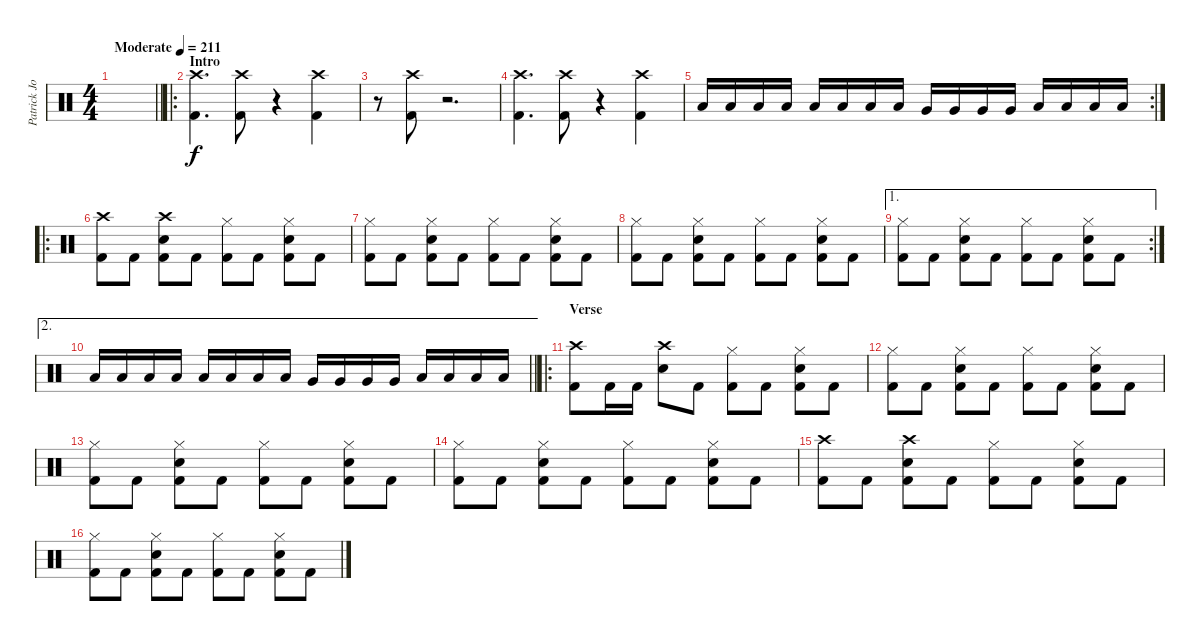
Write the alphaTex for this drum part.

\track ("Patrick Johansson" "Patrick Jo") {instrument percussion}
\staff {score}
\articulation defaults
\ts (4 4)
\tempo (211 "Moderate")
\clef neutral
\barLineRight lightlight
\ks c
|
\ro
\section ("" "Intro")
("Crash high (hit)" "Kick (hit) 2").4{d} ("Crash high (hit)" "Kick (hit) 2").8 r.4 ("Crash high (hit)" "Kick (hit) 2").4 |
r.8 ("Crash high (hit)" "Kick (hit) 2").8 r.2{d} |
("Crash high (hit)" "Kick (hit) 2").4{d} ("Crash high (hit)" "Kick (hit) 2").8 r.4 ("Crash high (hit)" "Kick (hit) 2").4 |
\rc 2 "Low Tom (hit)".16 "Low Tom (hit)".16 "Low Tom (hit)".16 "Low Tom (hit)".16 "Low Tom (hit)".16 "Low Tom (hit)".16 "Low Tom (hit)".16 "Low Tom (hit)".16 "Very Low Tom (hit)".16 "Very Low Tom (hit)".16 "Very Low Tom (hit)".16 "Very Low Tom (hit)".16 "Low Floor Tom (hit)".16 "Low Floor Tom (hit)".16 "Low Floor Tom (hit)".16 "Low Floor Tom (hit)".16
|
\ro
("Crash high (hit)" "Kick (hit) 2").8 "Kick (hit) 2".8 ("Crash high (hit)" "Electric Snare (hit)" "Kick (hit) 2").8 "Kick (hit) 2".8 ("Hi-Hat (closed)" "Kick (hit) 2").8 "Kick (hit) 2".8 ("Electric Snare (hit)" "Hi-Hat (closed)" "Kick (hit) 2").8 "Kick (hit) 2".8 |
("Hi-Hat (closed)" "Kick (hit) 2").8 "Kick (hit) 2".8 ("Electric Snare (hit)" "Hi-Hat (closed)" "Kick (hit) 2").8 "Kick (hit) 2".8 ("Hi-Hat (closed)" "Kick (hit) 2").8 "Kick (hit) 2".8 ("Electric Snare (hit)" "Hi-Hat (closed)" "Kick (hit) 2").8 "Kick (hit) 2".8 |
("Hi-Hat (closed)" "Kick (hit) 2").8 "Kick (hit) 2".8 ("Electric Snare (hit)" "Hi-Hat (closed)" "Kick (hit) 2").8 "Kick (hit) 2".8 ("Hi-Hat (closed)" "Kick (hit) 2").8 "Kick (hit) 2".8 ("Electric Snare (hit)" "Hi-Hat (closed)" "Kick (hit) 2").8 "Kick (hit) 2".8 |
\ae 1
\rc 2
("Hi-Hat (closed)" "Kick (hit) 2").8 "Kick (hit) 2".8 ("Electric Snare (hit)" "Hi-Hat (closed)" "Kick (hit) 2").8 "Kick (hit) 2".8 ("Hi-Hat (closed)" "Kick (hit) 2").8 "Kick (hit) 2".8 ("Electric Snare (hit)" "Hi-Hat (closed)" "Kick (hit) 2").8 "Kick (hit) 2".8 |
\ae 2
\barLineRight lightlight "Low Tom (hit)".16 "Low Tom (hit)".16 "Low Tom (hit)".16 "Low Tom (hit)".16 "Low Tom (hit)".16 "Low Tom (hit)".16 "Low Tom (hit)".16 "Low Tom (hit)".16 "Very Low Tom (hit)".16 "Very Low Tom (hit)".16 "Very Low Tom (hit)".16 "Very Low Tom (hit)".16 "Low Floor Tom (hit)".16 "Low Floor Tom (hit)".16 "Low Floor Tom (hit)".16 "Low Floor Tom (hit)".16
|
\ro
\section ("" "Verse")
("Crash high (hit)" "Kick (hit) 2").8 "Kick (hit) 2".16 "Kick (hit) 2".16 ("Crash high (hit)" "Electric Snare (hit)").8 "Kick (hit) 2".8 ("Hi-Hat (closed)" "Kick (hit) 2").8 "Kick (hit) 2".8 ("Electric Snare (hit)" "Hi-Hat (closed)" "Kick (hit) 2").8 "Kick (hit) 2".8 |
("Hi-Hat (closed)" "Kick (hit) 2").8 "Kick (hit) 2".8 ("Electric Snare (hit)" "Hi-Hat (closed)" "Kick (hit) 2").8 "Kick (hit) 2".8 ("Hi-Hat (closed)" "Kick (hit) 2").8 "Kick (hit) 2".8 ("Electric Snare (hit)" "Hi-Hat (closed)" "Kick (hit) 2").8 "Kick (hit) 2".8 |
("Hi-Hat (closed)" "Kick (hit) 2").8 "Kick (hit) 2".8 ("Electric Snare (hit)" "Hi-Hat (closed)" "Kick (hit) 2").8 "Kick (hit) 2".8 ("Hi-Hat (closed)" "Kick (hit) 2").8 "Kick (hit) 2".8 ("Electric Snare (hit)" "Hi-Hat (closed)" "Kick (hit) 2").8 "Kick (hit) 2".8 |
("Hi-Hat (closed)" "Kick (hit) 2").8 "Kick (hit) 2".8 ("Electric Snare (hit)" "Hi-Hat (closed)" "Kick (hit) 2").8 "Kick (hit) 2".8 ("Hi-Hat (closed)" "Kick (hit) 2").8 "Kick (hit) 2".8 ("Electric Snare (hit)" "Hi-Hat (closed)" "Kick (hit) 2").8 "Kick (hit) 2".8 |
("Crash high (hit)" "Kick (hit) 2").8 "Kick (hit) 2".8 ("Crash high (hit)" "Electric Snare (hit)" "Kick (hit) 2").8 "Kick (hit) 2".8 ("Hi-Hat (closed)" "Kick (hit) 2").8 "Kick (hit) 2".8 ("Electric Snare (hit)" "Hi-Hat (closed)" "Kick (hit) 2").8 "Kick (hit) 2".8 |
("Hi-Hat (closed)" "Kick (hit) 2").8 "Kick (hit) 2".8 ("Electric Snare (hit)" "Hi-Hat (closed)" "Kick (hit) 2").8 "Kick (hit) 2".8 ("Hi-Hat (closed)" "Kick (hit) 2").8 "Kick (hit) 2".8 ("Electric Snare (hit)" "Hi-Hat (closed)" "Kick (hit) 2").8 "Kick (hit) 2".8
